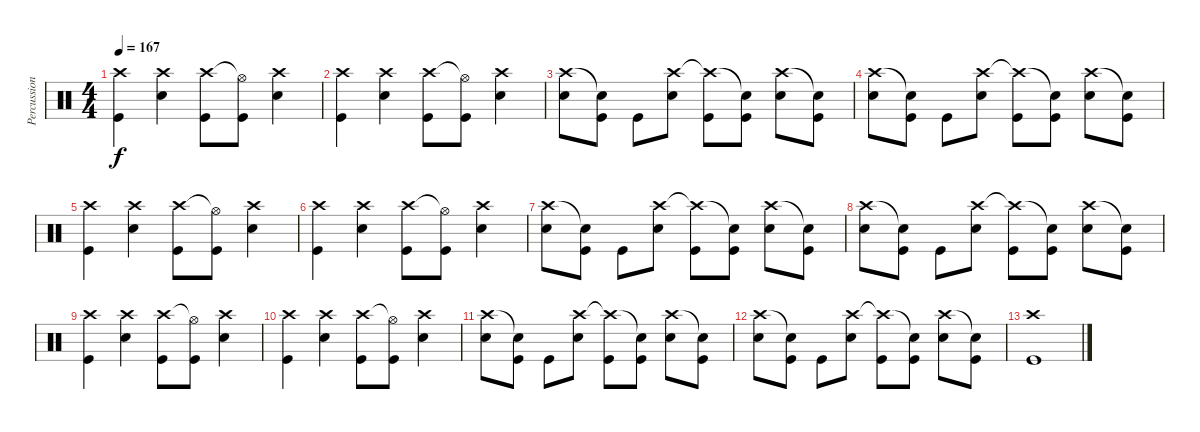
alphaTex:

\track ("Percussion" "Percussion") {instrument percussion}
\staff {score}
\articulation defaults
\ts (4 4)
\tempo 167
\clef neutral
\ks c
("Crash high (hit)" "Kick (hit)").4{dy f} ("Crash high (hit)" "Electric Snare (hit)").4 ("Crash high (hit)" "Kick (hit)").8 ("Hi-Hat (open)"{t} "Kick (hit)").8 ("Crash high (hit)" "Electric Snare (hit)").4 |
("Crash high (hit)" "Kick (hit)").4 ("Crash high (hit)" "Electric Snare (hit)").4 ("Crash high (hit)" "Kick (hit)").8 ("Hi-Hat (open)"{t} "Kick (hit)").8 ("Crash high (hit)" "Electric Snare (hit)").4 |
("Crash high (hit)" "Electric Snare (hit)").8 ("Snare (hit)"{t} "Kick (hit)").8 "Kick (hit)".8 ("Crash high (hit)" "Electric Snare (hit)").8 ("Crash high (hit)"{t} "Kick (hit)").8 ("Snare (hit)"{t} "Kick (hit)").8 ("Crash high (hit)" "Electric Snare (hit)").8 ("Snare (hit)"{t} "Kick (hit)").8 |
("Crash high (hit)" "Electric Snare (hit)").8 ("Snare (hit)"{t} "Kick (hit)").8 "Kick (hit)".8 ("Crash high (hit)" "Electric Snare (hit)").8 ("Crash high (hit)"{t} "Kick (hit)").8 ("Snare (hit)"{t} "Kick (hit)").8 ("Crash high (hit)" "Electric Snare (hit)").8 ("Snare (hit)"{t} "Kick (hit)").8 |
("Crash high (hit)" "Kick (hit)").4 ("Crash high (hit)" "Electric Snare (hit)").4 ("Crash high (hit)" "Kick (hit)").8 ("Hi-Hat (open)"{t} "Kick (hit)").8 ("Crash high (hit)" "Electric Snare (hit)").4 |
("Crash high (hit)" "Kick (hit)").4 ("Crash high (hit)" "Electric Snare (hit)").4 ("Crash high (hit)" "Kick (hit)").8 ("Hi-Hat (open)"{t} "Kick (hit)").8 ("Crash high (hit)" "Electric Snare (hit)").4 |
("Crash high (hit)" "Electric Snare (hit)").8 ("Snare (hit)"{t} "Kick (hit)").8 "Kick (hit)".8 ("Crash high (hit)" "Electric Snare (hit)").8 ("Crash high (hit)"{t} "Kick (hit)").8 ("Snare (hit)"{t} "Kick (hit)").8 ("Crash high (hit)" "Electric Snare (hit)").8 ("Snare (hit)"{t} "Kick (hit)").8 |
("Crash high (hit)" "Electric Snare (hit)").8 ("Snare (hit)"{t} "Kick (hit)").8 "Kick (hit)".8 ("Crash high (hit)" "Electric Snare (hit)").8 ("Crash high (hit)"{t} "Kick (hit)").8 ("Snare (hit)"{t} "Kick (hit)").8 ("Crash high (hit)" "Electric Snare (hit)").8 ("Snare (hit)"{t} "Kick (hit)").8 |
("Crash high (hit)" "Kick (hit)").4 ("Crash high (hit)" "Electric Snare (hit)").4 ("Crash high (hit)" "Kick (hit)").8 ("Hi-Hat (open)"{t} "Kick (hit)").8 ("Crash high (hit)" "Electric Snare (hit)").4 |
("Crash high (hit)" "Kick (hit)").4 ("Crash high (hit)" "Electric Snare (hit)").4 ("Crash high (hit)" "Kick (hit)").8 ("Hi-Hat (open)"{t} "Kick (hit)").8 ("Crash high (hit)" "Electric Snare (hit)").4 |
("Crash high (hit)" "Electric Snare (hit)").8 ("Snare (hit)"{t} "Kick (hit)").8 "Kick (hit)".8 ("Crash high (hit)" "Electric Snare (hit)").8 ("Crash high (hit)"{t} "Kick (hit)").8 ("Snare (hit)"{t} "Kick (hit)").8 ("Crash high (hit)" "Electric Snare (hit)").8 ("Snare (hit)"{t} "Kick (hit)").8 |
("Crash high (hit)" "Electric Snare (hit)").8 ("Snare (hit)"{t} "Kick (hit)").8 "Kick (hit)".8 ("Crash high (hit)" "Electric Snare (hit)").8 ("Crash high (hit)"{t} "Kick (hit)").8 ("Snare (hit)"{t} "Kick (hit)").8 ("Crash high (hit)" "Electric Snare (hit)").8 ("Snare (hit)"{t} "Kick (hit)").8 |
("Crash high (hit)" "Kick (hit)").1
